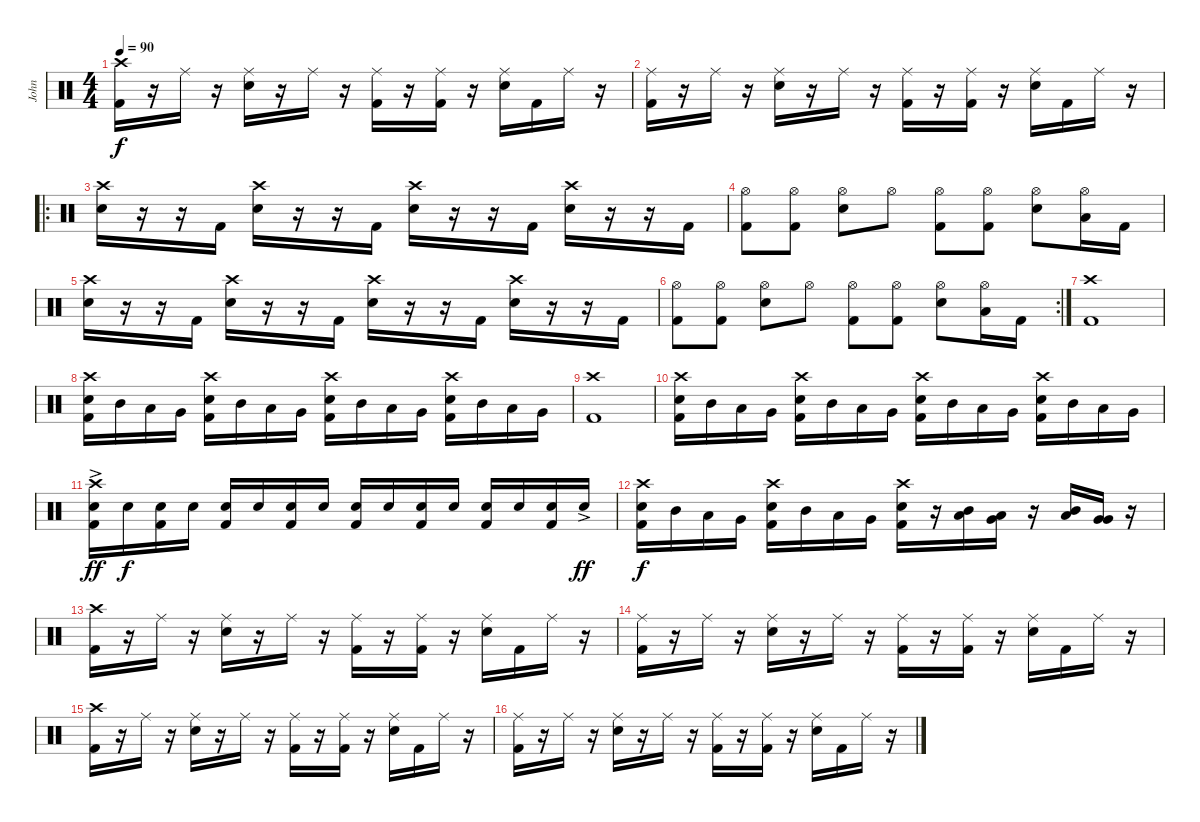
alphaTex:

\track ("John" "John") {instrument percussion}
\staff {score}
\articulation defaults
\ts (4 4)
\tempo 90
\clef neutral
\ks c
("Crash high (hit)" "Kick (hit) 2").16{dy f} r.16 "Ride (middle)".16 r.16 ("Ride (middle)" "Snare (hit) 2").16 r.16 "Ride (middle)".16 r.16 ("Ride (middle)" "Kick (hit) 2").16 r.16 ("Ride (middle)" "Kick (hit) 2").16 r.16 ("Ride (middle)" "Snare (hit) 2").16 "Kick (hit) 2".16 "Ride (middle)".16 r.16 |
("Ride (middle)" "Kick (hit) 2").16 r.16 "Ride (middle)".16 r.16 ("Ride (middle)" "Snare (hit) 2").16 r.16 "Ride (middle)".16 r.16 ("Ride (middle)" "Kick (hit) 2").16 r.16 ("Ride (middle)" "Kick (hit) 2").16 r.16 ("Ride (middle)" "Snare (hit) 2").16 "Kick (hit) 2".16 "Ride (middle)".16 r.16 |
\ro
("Crash high (hit)" "Snare (hit) 2").16 r.16 r.16 "Kick (hit) 2".16 ("Crash high (hit)" "Snare (hit) 2").16 r.16 r.16 "Kick (hit) 2".16 ("Crash high (hit)" "Snare (hit) 2").16 r.16 r.16 "Kick (hit) 2".16 ("Crash high (hit)" "Snare (hit) 2").16 r.16 r.16 "Kick (hit) 2".16 |
("Hi-Hat (open)" "Kick (hit) 2").8 ("Hi-Hat (open)" "Kick (hit) 2").8 ("Hi-Hat (open)" "Snare (hit) 2").8 "Hi-Hat (open)".8 ("Hi-Hat (open)" "Kick (hit) 2").8 ("Hi-Hat (open)" "Kick (hit) 2").8 ("Hi-Hat (open)" "Snare (hit) 2").8 ("Hi-Hat (open)" "Low Tom (hit)").16 "Kick (hit) 2".16 |
("Crash high (hit)" "Snare (hit) 2").16 r.16 r.16 "Kick (hit) 2".16 ("Crash high (hit)" "Snare (hit) 2").16 r.16 r.16 "Kick (hit) 2".16 ("Crash high (hit)" "Snare (hit) 2").16 r.16 r.16 "Kick (hit) 2".16 ("Crash high (hit)" "Snare (hit) 2").16 r.16 r.16 "Kick (hit) 2".16 |
\rc 2
("Hi-Hat (open)" "Kick (hit) 2").8 ("Hi-Hat (open)" "Kick (hit) 2").8 ("Hi-Hat (open)" "Snare (hit) 2").8 "Hi-Hat (open)".8 ("Hi-Hat (open)" "Kick (hit) 2").8 ("Hi-Hat (open)" "Kick (hit) 2").8 ("Hi-Hat (open)" "Snare (hit) 2").8 ("Hi-Hat (open)" "Low Tom (hit)").16 "Kick (hit) 2".16 |
("Crash high (hit)" "Kick (hit) 2").1 |
("Crash high (hit)" "Snare (hit) 2" "Kick (hit) 2").16 "Mid Tom (hit)".16 "Low Tom (hit)".16 "Very Low Tom (hit)".16 ("Crash high (hit)" "Snare (hit) 2" "Kick (hit) 2").16 "Mid Tom (hit)".16 "Low Tom (hit)".16 "Very Low Tom (hit)".16 ("Crash high (hit)" "Snare (hit) 2" "Kick (hit) 2").16 "Mid Tom (hit)".16 "Low Tom (hit)".16 "Very Low Tom (hit)".16 ("Crash high (hit)" "Snare (hit) 2" "Kick (hit) 2").16 "Mid Tom (hit)".16 "Low Tom (hit)".16 "Very Low Tom (hit)".16 |
("Crash high (hit)" "Kick (hit) 2").1 |
("Crash high (hit)" "Snare (hit) 2" "Kick (hit) 2").16 "Mid Tom (hit)".16 "Low Tom (hit)".16 "Very Low Tom (hit)".16 ("Crash high (hit)" "Snare (hit) 2" "Kick (hit) 2").16 "Mid Tom (hit)".16 "Low Tom (hit)".16 "Very Low Tom (hit)".16 ("Crash high (hit)" "Snare (hit) 2" "Kick (hit) 2").16 "Mid Tom (hit)".16 "Low Tom (hit)".16 "Very Low Tom (hit)".16 ("Crash high (hit)" "Snare (hit) 2" "Kick (hit) 2").16 "Mid Tom (hit)".16 "Low Tom (hit)".16 "Very Low Tom (hit)".16 |
("Crash high (hit)" "Snare (hit) 2"{ac} "Kick (hit) 2").16{dy ff} "Snare (hit) 2".16{dy f} ("Snare (hit) 2" "Kick (hit) 2").16 "Snare (hit) 2".16 ("Snare (hit) 2" "Kick (hit) 2").16 "Snare (hit) 2".16 ("Snare (hit) 2" "Kick (hit) 2").16 "Snare (hit) 2".16 ("Snare (hit) 2" "Kick (hit) 2").16 "Snare (hit) 2".16 ("Snare (hit) 2" "Kick (hit) 2").16 "Snare (hit) 2".16 ("Snare (hit) 2" "Kick (hit) 2").16 "Snare (hit) 2".16 ("Snare (hit) 2" "Kick (hit) 2").16 "Snare (hit) 2"{ac}.16{dy ff} |
("Crash high (hit)" "Snare (hit) 2" "Kick (hit) 2").16{dy f} "Mid Tom (hit)".16 "Low Tom (hit)".16 "Very Low Tom (hit)".16 ("Crash high (hit)" "Snare (hit) 2" "Kick (hit) 2").16 "Mid Tom (hit)".16 "Low Tom (hit)".16 "Very Low Tom (hit)".16 ("Crash high (hit)" "Snare (hit) 2" "Kick (hit) 2").16 r.16 ("Low Tom (hit)" "Mid Tom (hit)").16 ("Very Low Tom (hit)" "Low Tom (hit)").16 r.16 ("Mid Tom (hit)" "Low Tom (hit)").16 ("Very Low Tom (hit)" "Very Low Tom (hit)").16 r.16 |
("Crash high (hit)" "Kick (hit) 2").16 r.16 "Ride (middle)".16 r.16 ("Ride (middle)" "Snare (hit) 2").16 r.16 "Ride (middle)".16 r.16 ("Ride (middle)" "Kick (hit) 2").16 r.16 ("Ride (middle)" "Kick (hit) 2").16 r.16 ("Ride (middle)" "Snare (hit) 2").16 "Kick (hit) 2".16 "Ride (middle)".16 r.16 |
("Ride (middle)" "Kick (hit) 2").16 r.16 "Ride (middle)".16 r.16 ("Ride (middle)" "Snare (hit) 2").16 r.16 "Ride (middle)".16 r.16 ("Ride (middle)" "Kick (hit) 2").16 r.16 ("Ride (middle)" "Kick (hit) 2").16 r.16 ("Ride (middle)" "Snare (hit) 2").16 "Kick (hit) 2".16 "Ride (middle)".16 r.16 |
("Crash high (hit)" "Kick (hit) 2").16 r.16 "Ride (middle)".16 r.16 ("Ride (middle)" "Snare (hit) 2").16 r.16 "Ride (middle)".16 r.16 ("Ride (middle)" "Kick (hit) 2").16 r.16 ("Ride (middle)" "Kick (hit) 2").16 r.16 ("Ride (middle)" "Snare (hit) 2").16 "Kick (hit) 2".16 "Ride (middle)".16 r.16 |
("Ride (middle)" "Kick (hit) 2").16 r.16 "Ride (middle)".16 r.16 ("Ride (middle)" "Snare (hit) 2").16 r.16 "Ride (middle)".16 r.16 ("Ride (middle)" "Kick (hit) 2").16 r.16 ("Ride (middle)" "Kick (hit) 2").16 r.16 ("Ride (middle)" "Snare (hit) 2").16 "Kick (hit) 2".16 "Ride (middle)".16 r.16
